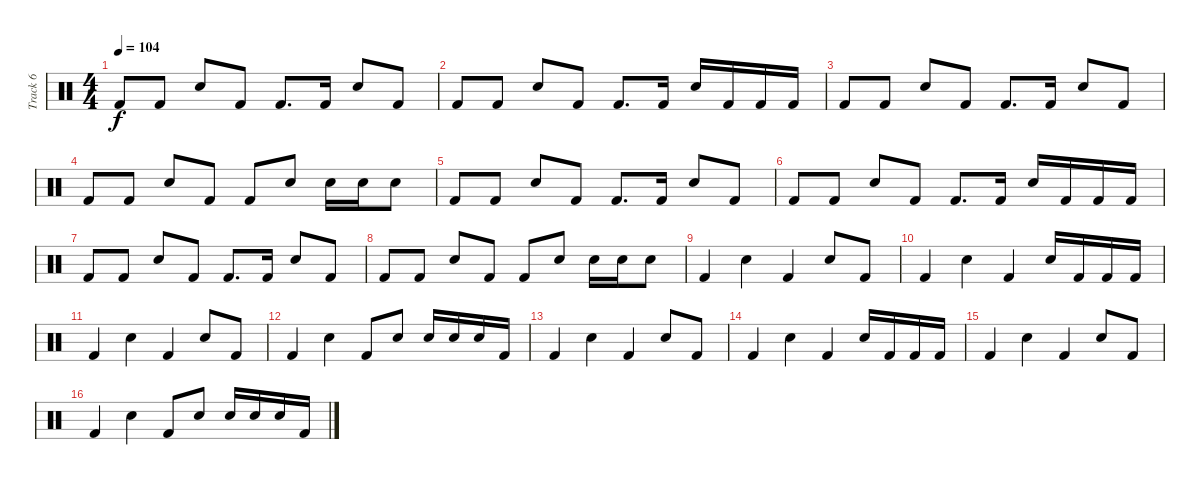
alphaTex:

\track ("Track 6" "Track 6") {instrument percussion}
\staff {score}
\articulation defaults
\ts (4 4)
\tempo 104
\clef neutral
\ks c "Kick (hit) 2".8{dy f} "Kick (hit) 2".8 "Electric Snare (hit)".8 "Kick (hit) 2".8 "Kick (hit) 2".8{d} "Kick (hit) 2".16 "Electric Snare (hit)".8 "Kick (hit) 2".8
|
"Kick (hit) 2".8 "Kick (hit) 2".8 "Electric Snare (hit)".8 "Kick (hit) 2".8 "Kick (hit) 2".8{d} "Kick (hit) 2".16 "Electric Snare (hit)".16 "Kick (hit) 2".16 "Kick (hit) 2".16 "Kick (hit) 2".16 |
"Kick (hit) 2".8 "Kick (hit) 2".8 "Electric Snare (hit)".8 "Kick (hit) 2".8 "Kick (hit) 2".8{d} "Kick (hit) 2".16 "Electric Snare (hit)".8 "Kick (hit) 2".8 |
"Kick (hit) 2".8 "Kick (hit) 2".8 "Electric Snare (hit)".8 "Kick (hit) 2".8 "Kick (hit) 2".8 "Electric Snare (hit)".8 "Electric Snare (hit)".16 "Electric Snare (hit)".16 "Electric Snare (hit)".8 |
"Kick (hit) 2".8 "Kick (hit) 2".8 "Electric Snare (hit)".8 "Kick (hit) 2".8 "Kick (hit) 2".8{d} "Kick (hit) 2".16 "Electric Snare (hit)".8 "Kick (hit) 2".8 |
"Kick (hit) 2".8 "Kick (hit) 2".8 "Electric Snare (hit)".8 "Kick (hit) 2".8 "Kick (hit) 2".8{d} "Kick (hit) 2".16 "Electric Snare (hit)".16 "Kick (hit) 2".16 "Kick (hit) 2".16 "Kick (hit) 2".16 |
"Kick (hit) 2".8 "Kick (hit) 2".8 "Electric Snare (hit)".8 "Kick (hit) 2".8 "Kick (hit) 2".8{d} "Kick (hit) 2".16 "Electric Snare (hit)".8 "Kick (hit) 2".8 |
"Kick (hit) 2".8 "Kick (hit) 2".8 "Electric Snare (hit)".8 "Kick (hit) 2".8 "Kick (hit) 2".8 "Electric Snare (hit)".8 "Electric Snare (hit)".16 "Electric Snare (hit)".16 "Electric Snare (hit)".8 |
"Kick (hit) 2".4 "Electric Snare (hit)".4 "Kick (hit) 2".4 "Electric Snare (hit)".8 "Kick (hit) 2".8 |
"Kick (hit) 2".4 "Electric Snare (hit)".4 "Kick (hit) 2".4 "Electric Snare (hit)".16 "Kick (hit) 2".16 "Kick (hit) 2".16 "Kick (hit) 2".16 |
"Kick (hit) 2".4 "Electric Snare (hit)".4 "Kick (hit) 2".4 "Electric Snare (hit)".8 "Kick (hit) 2".8 |
"Kick (hit) 2".4 "Electric Snare (hit)".4 "Kick (hit) 2".8 "Electric Snare (hit)".8 "Electric Snare (hit)".16 "Electric Snare (hit)".16 "Electric Snare (hit)".16 "Kick (hit) 2".16 |
"Kick (hit) 2".4 "Electric Snare (hit)".4 "Kick (hit) 2".4 "Electric Snare (hit)".8 "Kick (hit) 2".8 |
"Kick (hit) 2".4 "Electric Snare (hit)".4 "Kick (hit) 2".4 "Electric Snare (hit)".16 "Kick (hit) 2".16 "Kick (hit) 2".16 "Kick (hit) 2".16 |
"Kick (hit) 2".4 "Electric Snare (hit)".4 "Kick (hit) 2".4 "Electric Snare (hit)".8 "Kick (hit) 2".8 |
"Kick (hit) 2".4 "Electric Snare (hit)".4 "Kick (hit) 2".8 "Electric Snare (hit)".8 "Electric Snare (hit)".16 "Electric Snare (hit)".16 "Electric Snare (hit)".16 "Kick (hit) 2".16
